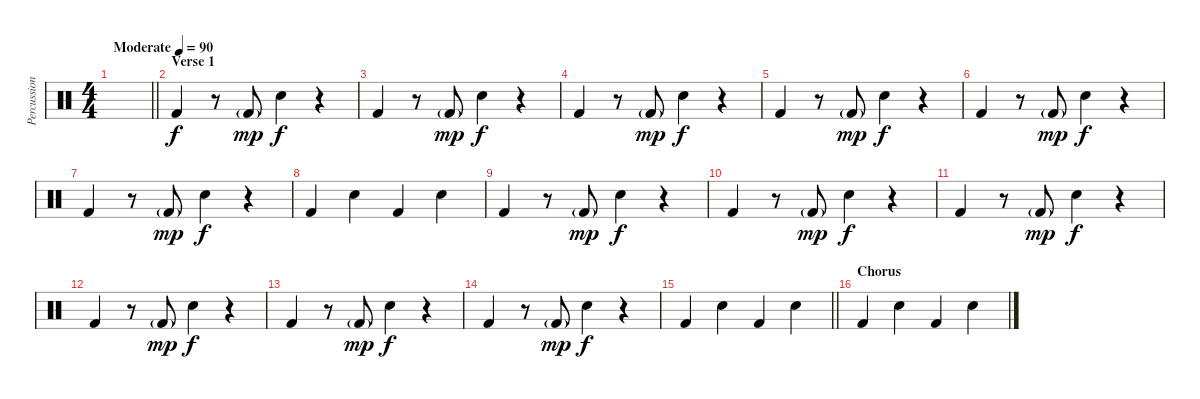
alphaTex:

\track ("Percussion" "Percussion") {instrument percussion}
\staff {score}
\articulation defaults
\ts (4 4)
\tempo (90 "Moderate")
\clef neutral
\barLineRight lightlight
\ks c
|
\section ("" "Verse 1")
"Kick (hit) 2".4 r.8 "Kick (hit) 2"{g}.8{dy mp} "Snare (hit) 2".4{dy f} r.4 |
"Kick (hit) 2".4 r.8 "Kick (hit) 2"{g}.8{dy mp} "Snare (hit) 2".4{dy f} r.4 |
"Kick (hit) 2".4 r.8 "Kick (hit) 2"{g}.8{dy mp} "Snare (hit) 2".4{dy f} r.4 |
"Kick (hit) 2".4 r.8 "Kick (hit) 2"{g}.8{dy mp} "Snare (hit) 2".4{dy f} r.4 |
"Kick (hit) 2".4 r.8 "Kick (hit) 2"{g}.8{dy mp} "Snare (hit) 2".4{dy f} r.4 |
"Kick (hit) 2".4 r.8 "Kick (hit) 2"{g}.8{dy mp} "Snare (hit) 2".4{dy f} r.4 |
"Kick (hit) 2".4 "Snare (hit) 2".4 "Kick (hit) 2".4 "Snare (hit) 2".4 |
"Kick (hit) 2".4 r.8 "Kick (hit) 2"{g}.8{dy mp} "Snare (hit) 2".4{dy f} r.4 |
"Kick (hit) 2".4 r.8 "Kick (hit) 2"{g}.8{dy mp} "Snare (hit) 2".4{dy f} r.4 |
"Kick (hit) 2".4 r.8 "Kick (hit) 2"{g}.8{dy mp} "Snare (hit) 2".4{dy f} r.4 |
"Kick (hit) 2".4 r.8 "Kick (hit) 2"{g}.8{dy mp} "Snare (hit) 2".4{dy f} r.4 |
"Kick (hit) 2".4 r.8 "Kick (hit) 2"{g}.8{dy mp} "Snare (hit) 2".4{dy f} r.4 |
"Kick (hit) 2".4 r.8 "Kick (hit) 2"{g}.8{dy mp} "Snare (hit) 2".4{dy f} r.4 |
\barLineRight lightlight "Kick (hit) 2".4 "Snare (hit) 2".4 "Kick (hit) 2".4 "Snare (hit) 2".4
|
\section ("" "Chorus")
"Kick (hit) 2".4 "Snare (hit) 2".4 "Kick (hit) 2".4 "Snare (hit) 2".4
